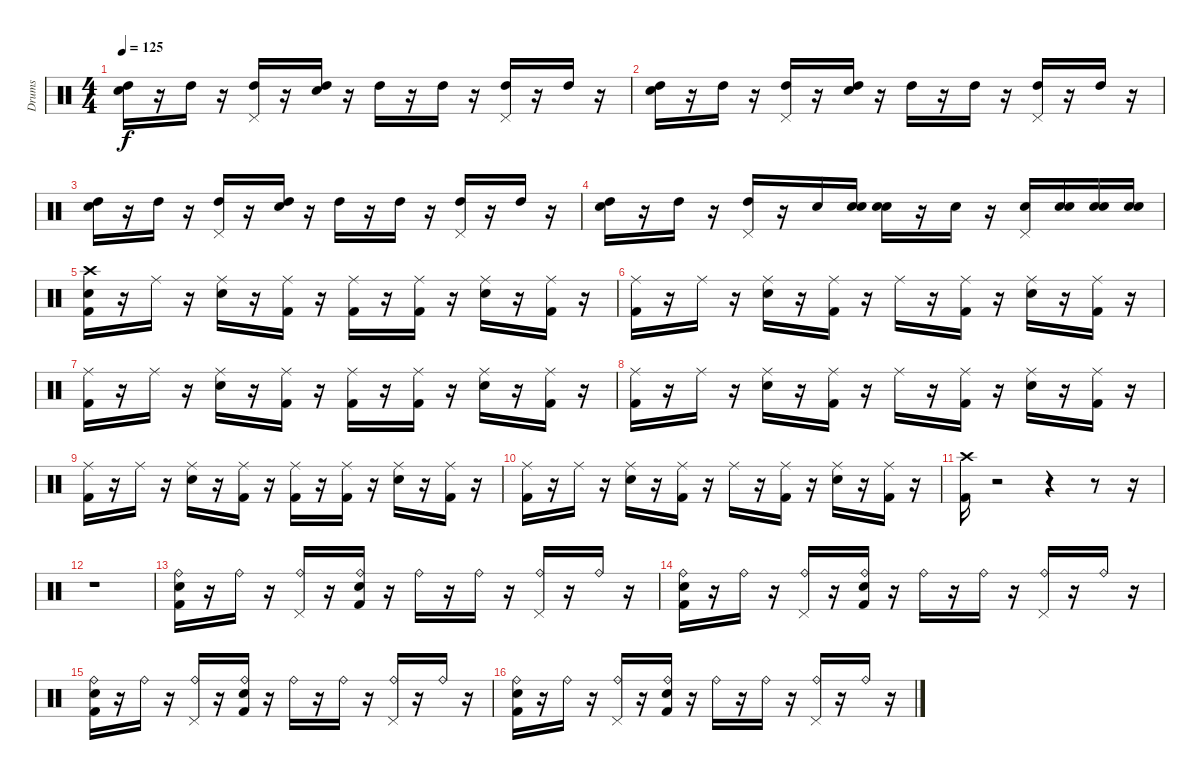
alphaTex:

\track ("Drums" "Drums") {instrument percussion}
\staff {score}
\articulation defaults
\ts (4 4)
\tempo 125
\clef neutral
\ks c
("Snare (hit) 2" "High Tom (hit)").16{dy f} r.16 "High Tom (hit)".16 r.16 ("Pedal Hi-Hat (hit)" "High Tom (hit)").16 r.16 ("Snare (hit) 2" "High Tom (hit)").16 r.16 "High Tom (hit)".16 r.16 "High Tom (hit)".16 r.16 ("Pedal Hi-Hat (hit)" "High Tom (hit)").16 r.16 "High Tom (hit)".16 r.16 |
("Snare (hit) 2" "High Tom (hit)").16 r.16 "High Tom (hit)".16 r.16 ("Pedal Hi-Hat (hit)" "High Tom (hit)").16 r.16 ("Snare (hit) 2" "High Tom (hit)").16 r.16 "High Tom (hit)".16 r.16 "High Tom (hit)".16 r.16 ("Pedal Hi-Hat (hit)" "High Tom (hit)").16 r.16 "High Tom (hit)".16 r.16 |
("Snare (hit) 2" "High Tom (hit)").16 r.16 "High Tom (hit)".16 r.16 ("Pedal Hi-Hat (hit)" "High Tom (hit)").16 r.16 ("Snare (hit) 2" "High Tom (hit)").16 r.16 "High Tom (hit)".16 r.16 "High Tom (hit)".16 r.16 ("Pedal Hi-Hat (hit)" "High Tom (hit)").16 r.16 "High Tom (hit)".16 r.16 |
("Snare (hit) 2" "High Tom (hit)").16 r.16 "High Tom (hit)".16 r.16 ("Pedal Hi-Hat (hit)" "High Tom (hit)").16 r.16 "Snare (hit) 2".16 ("Snare (hit)" "Snare (hit) 2").16 ("Snare (hit)" "Snare (hit) 2").16 r.16 "Snare (hit) 2".16 r.16 ("Pedal Hi-Hat (hit)" "Snare (hit) 2").16 ("Snare (hit)" "Snare (hit) 2").16 ("Snare (hit)" "Snare (hit) 2").16 ("Snare (hit)" "Snare (hit) 2").16 |
("Snare (hit)" "Kick (hit) 2" "Crash high (hit)").16 r.16 "Ride (middle)".16 r.16 ("Ride (middle)" "Snare (hit) 2").16 r.16 ("Ride (middle)" "Kick (hit) 2").16 r.16 ("Ride (middle)" "Kick (hit) 2").16 r.16 ("Ride (middle)" "Kick (hit) 2").16 r.16 ("Ride (middle)" "Snare (hit) 2").16 r.16 ("Ride (middle)" "Kick (hit) 2").16 r.16 |
("Kick (hit) 2" "Ride (middle)").16 r.16 "Ride (middle)".16 r.16 ("Ride (middle)" "Snare (hit) 2").16 r.16 ("Ride (middle)" "Kick (hit) 2").16 r.16 "Ride (middle)".16 r.16 ("Ride (middle)" "Kick (hit) 2").16 r.16 ("Ride (middle)" "Snare (hit) 2").16 r.16 ("Ride (middle)" "Kick (hit) 2").16 r.16 |
("Kick (hit) 2" "Ride (middle)").16 r.16 "Ride (middle)".16 r.16 ("Ride (middle)" "Snare (hit) 2").16 r.16 ("Ride (middle)" "Kick (hit) 2").16 r.16 ("Ride (middle)" "Kick (hit) 2").16 r.16 ("Ride (middle)" "Kick (hit) 2").16 r.16 ("Ride (middle)" "Snare (hit) 2").16 r.16 ("Ride (middle)" "Kick (hit) 2").16 r.16 |
("Kick (hit) 2" "Ride (middle)").16 r.16 "Ride (middle)".16 r.16 ("Ride (middle)" "Snare (hit) 2").16 r.16 ("Ride (middle)" "Kick (hit) 2").16 r.16 "Ride (middle)".16 r.16 ("Ride (middle)" "Kick (hit) 2").16 r.16 ("Ride (middle)" "Snare (hit) 2").16 r.16 ("Ride (middle)" "Kick (hit) 2").16 r.16 |
("Kick (hit) 2" "Ride (middle)").16 r.16 "Ride (middle)".16 r.16 ("Ride (middle)" "Snare (hit) 2").16 r.16 ("Ride (middle)" "Kick (hit) 2").16 r.16 ("Ride (middle)" "Kick (hit) 2").16 r.16 ("Ride (middle)" "Kick (hit) 2").16 r.16 ("Ride (middle)" "Snare (hit) 2").16 r.16 ("Ride (middle)" "Kick (hit) 2").16 r.16 |
("Kick (hit) 2" "Ride (middle)").16 r.16 "Ride (middle)".16 r.16 ("Ride (middle)" "Snare (hit) 2").16 r.16 ("Ride (middle)" "Kick (hit) 2").16 r.16 "Ride (middle)".16 r.16 ("Ride (middle)" "Kick (hit) 2").16 r.16 ("Ride (middle)" "Snare (hit) 2").16 r.16 ("Ride (middle)" "Kick (hit) 2").16 r.16 |
("Kick (hit) 2" "Crash high (hit)").16 r.2 r.4 r.8 r.16 |
r.1 |
("Snare (hit) 2" "Ride (bell)" "Kick (hit) 2").16 r.16 "Ride (bell)".16 r.16 ("Pedal Hi-Hat (hit)" "Ride (bell)").16 r.16 ("Snare (hit) 2" "Ride (bell)" "Kick (hit) 2").16 r.16 "Ride (bell)".16 r.16 "Ride (bell)".16 r.16 ("Pedal Hi-Hat (hit)" "Ride (bell)").16 r.16 "Ride (bell)".16 r.16 |
("Snare (hit) 2" "Ride (bell)" "Kick (hit) 2").16 r.16 "Ride (bell)".16 r.16 ("Pedal Hi-Hat (hit)" "Ride (bell)").16 r.16 ("Snare (hit) 2" "Ride (bell)" "Kick (hit) 2").16 r.16 "Ride (bell)".16 r.16 "Ride (bell)".16 r.16 ("Pedal Hi-Hat (hit)" "Ride (bell)").16 r.16 "Ride (bell)".16 r.16 |
("Snare (hit) 2" "Ride (bell)" "Kick (hit) 2").16 r.16 "Ride (bell)".16 r.16 ("Pedal Hi-Hat (hit)" "Ride (bell)").16 r.16 ("Snare (hit) 2" "Ride (bell)" "Kick (hit) 2").16 r.16 "Ride (bell)".16 r.16 "Ride (bell)".16 r.16 ("Pedal Hi-Hat (hit)" "Ride (bell)").16 r.16 "Ride (bell)".16 r.16 |
("Snare (hit) 2" "Ride (bell)" "Kick (hit) 2").16 r.16 "Ride (bell)".16 r.16 ("Pedal Hi-Hat (hit)" "Ride (bell)").16 r.16 ("Snare (hit) 2" "Ride (bell)" "Kick (hit) 2").16 r.16 "Ride (bell)".16 r.16 "Ride (bell)".16 r.16 ("Pedal Hi-Hat (hit)" "Ride (bell)").16 r.16 "Ride (bell)".16 r.16
